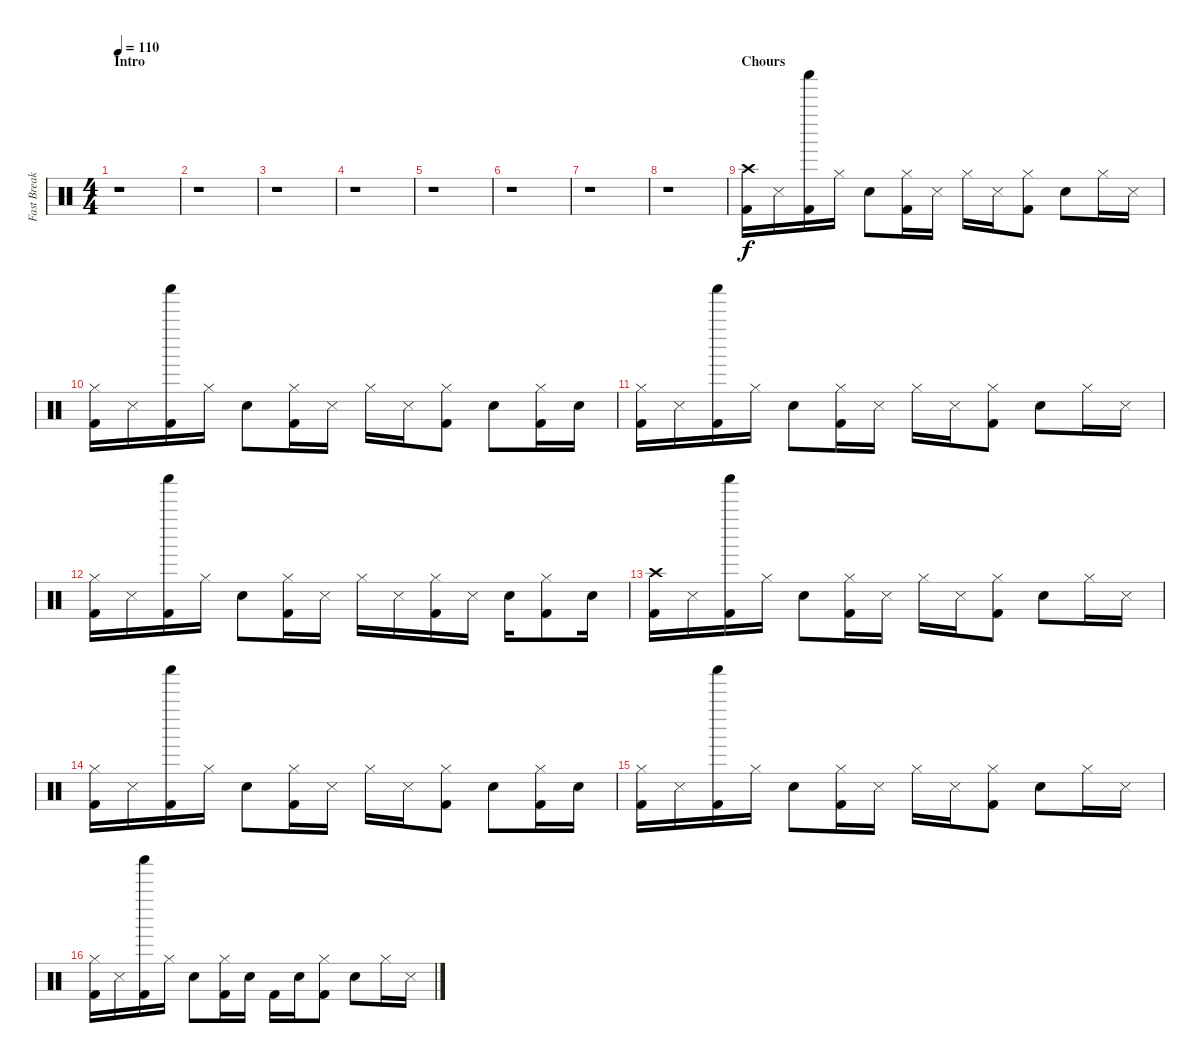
\track ("Fast Break Drums" "Fast Break") {instrument percussion}
\staff {score}
\articulation defaults
\ts (4 4)
\section ("" "Intro")
\tempo 110
\clef neutral
\ks c
r.1{dy f} |
r.1 |
r.1 |
r.1 |
r.1 |
r.1 |
r.1 |
r.1 |
\section ("" "Chours")
("Kick (hit) 2" "Crash high (hit)").16 "Snare (side stick) 3".16 ("Kick (hit) 2" "Shaker (hit)").16 "Hi-Hat (closed)".16 "Snare (hit) 2".8 ("Kick (hit) 2" "Hi-Hat (closed)").16 "Snare (side stick) 3".16 "Hi-Hat (closed)".16 "Snare (side stick) 3".16 ("Kick (hit) 2" "Hi-Hat (closed)").8 "Snare (hit) 2".8 "Hi-Hat (closed)".16 "Snare (side stick) 3".16 |
("Kick (hit) 2" "Hi-Hat (closed)").16 "Snare (side stick) 3".16 ("Kick (hit) 2" "Shaker (hit)").16 "Hi-Hat (closed)".16 "Snare (hit) 2".8 ("Kick (hit) 2" "Hi-Hat (closed)").16 "Snare (side stick) 3".16 "Hi-Hat (closed)".16 "Snare (side stick) 3".16 ("Kick (hit) 2" "Hi-Hat (closed)").8 "Snare (hit) 2".8 ("Kick (hit) 2" "Hi-Hat (closed)").16 "Snare (hit) 2".16 |
("Kick (hit) 2" "Hi-Hat (closed)").16 "Snare (side stick) 3".16 ("Kick (hit) 2" "Shaker (hit)").16 "Hi-Hat (closed)".16 "Snare (hit) 2".8 ("Kick (hit) 2" "Hi-Hat (closed)").16 "Snare (side stick) 3".16 "Hi-Hat (closed)".16 "Snare (side stick) 3".16 ("Kick (hit) 2" "Hi-Hat (closed)").8 "Snare (hit) 2".8 "Hi-Hat (closed)".16 "Snare (side stick) 3".16 |
("Kick (hit) 2" "Hi-Hat (closed)").16 "Snare (side stick) 3".16 ("Kick (hit) 2" "Shaker (hit)").16 "Hi-Hat (closed)".16 "Snare (hit) 2".8 ("Kick (hit) 2" "Hi-Hat (closed)").16 "Snare (side stick) 3".16 "Hi-Hat (closed)".16 "Snare (side stick) 3".16 ("Kick (hit) 2" "Hi-Hat (closed)").16 "Snare (side stick) 3".16 "Snare (hit) 2".16 ("Kick (hit) 2" "Hi-Hat (closed)").8 "Snare (hit) 2".16 |
("Kick (hit) 2" "Crash high (hit)").16 "Snare (side stick) 3".16 ("Kick (hit) 2" "Shaker (hit)").16 "Hi-Hat (closed)".16 "Snare (hit) 2".8 ("Kick (hit) 2" "Hi-Hat (closed)").16 "Snare (side stick) 3".16 "Hi-Hat (closed)".16 "Snare (side stick) 3".16 ("Kick (hit) 2" "Hi-Hat (closed)").8 "Snare (hit) 2".8 "Hi-Hat (closed)".16 "Snare (side stick) 3".16 |
("Kick (hit) 2" "Hi-Hat (closed)").16 "Snare (side stick) 3".16 ("Kick (hit) 2" "Shaker (hit)").16 "Hi-Hat (closed)".16 "Snare (hit) 2".8 ("Kick (hit) 2" "Hi-Hat (closed)").16 "Snare (side stick) 3".16 "Hi-Hat (closed)".16 "Snare (side stick) 3".16 ("Kick (hit) 2" "Hi-Hat (closed)").8 "Snare (hit) 2".8 ("Kick (hit) 2" "Hi-Hat (closed)").16 "Snare (hit) 2".16 |
("Kick (hit) 2" "Hi-Hat (closed)").16 "Snare (side stick) 3".16 ("Kick (hit) 2" "Shaker (hit)").16 "Hi-Hat (closed)".16 "Snare (hit) 2".8 ("Kick (hit) 2" "Hi-Hat (closed)").16 "Snare (side stick) 3".16 "Hi-Hat (closed)".16 "Snare (side stick) 3".16 ("Kick (hit) 2" "Hi-Hat (closed)").8 "Snare (hit) 2".8 "Hi-Hat (closed)".16 "Snare (side stick) 3".16 |
("Kick (hit) 2" "Hi-Hat (closed)").16 "Snare (side stick) 3".16 ("Kick (hit) 2" "Shaker (hit)").16 "Hi-Hat (closed)".16 "Snare (hit) 2".8 ("Kick (hit) 2" "Hi-Hat (closed)").16 "Snare (hit) 2".16 "Kick (hit) 2".16 "Snare (hit) 2".16 ("Kick (hit) 2" "Hi-Hat (closed)").8 "Snare (hit) 2".8 "Hi-Hat (closed)".16 "Snare (side stick) 3".16
